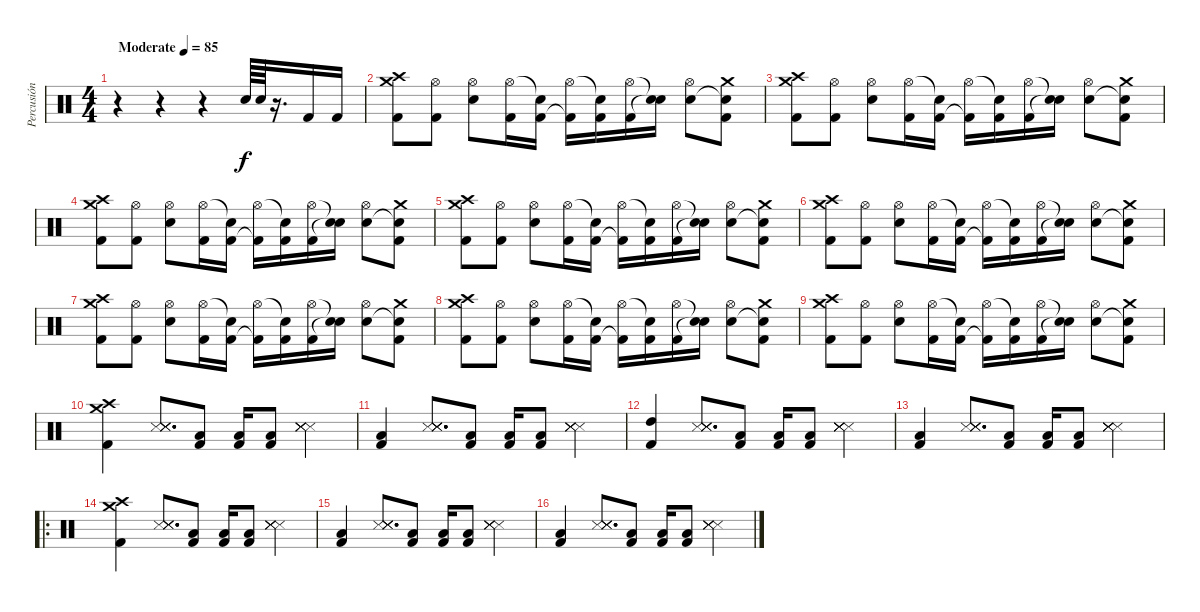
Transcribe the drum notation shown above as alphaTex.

\track ("Percusión" "Percusión") {instrument percussion}
\staff {score}
\articulation defaults
\ts (4 4)
\tempo (85 "Moderate")
\clef neutral
\ks c
r.4{dy f} r.4 r.4 "Electric Snare (hit)".64 "Electric Snare (hit)".64 r.16{d} "Kick (hit) 2".16 "Kick (hit) 2".16 |
("Crash high (hit)" "Crash medium (hit)" "Kick (hit) 2").8 ("Hi-Hat (open)" "Kick (hit) 2").8 ("Hi-Hat (open)" "Electric Snare (hit)").8 ("Hi-Hat (open)" "Kick (hit) 2").16 ("Snare (hit)"{t} "Kick (hit) 2").16 ("Hi-Hat (open)" "Kick (hit) 2"{t}).16 ("Snare (hit)"{t} "Kick (hit) 2").16 ("Hi-Hat (open)" "Kick (hit) 2").16 ("Snare (hit)"{t} "Snare (hit)"{t}).16 ("Hi-Hat (open)" "Electric Snare (hit)").8 ("Crash medium (hit)" "Snare (hit)"{t} "Kick (hit) 2").8 |
("Crash high (hit)" "Crash medium (hit)" "Kick (hit) 2").8 ("Hi-Hat (open)" "Kick (hit) 2").8 ("Hi-Hat (open)" "Electric Snare (hit)").8 ("Hi-Hat (open)" "Kick (hit) 2").16 ("Snare (hit)"{t} "Kick (hit) 2").16 ("Hi-Hat (open)" "Kick (hit) 2"{t}).16 ("Snare (hit)"{t} "Kick (hit) 2").16 ("Hi-Hat (open)" "Kick (hit) 2").16 ("Snare (hit)"{t} "Snare (hit)"{t}).16 ("Hi-Hat (open)" "Electric Snare (hit)").8 ("Crash medium (hit)" "Snare (hit)"{t} "Kick (hit) 2").8 |
("Crash high (hit)" "Crash medium (hit)" "Kick (hit) 2").8 ("Hi-Hat (open)" "Kick (hit) 2").8 ("Hi-Hat (open)" "Electric Snare (hit)").8 ("Hi-Hat (open)" "Kick (hit) 2").16 ("Snare (hit)"{t} "Kick (hit) 2").16 ("Hi-Hat (open)" "Kick (hit) 2"{t}).16 ("Snare (hit)"{t} "Kick (hit) 2").16 ("Hi-Hat (open)" "Kick (hit) 2").16 ("Snare (hit)"{t} "Snare (hit)"{t}).16 ("Hi-Hat (open)" "Electric Snare (hit)").8 ("Crash medium (hit)" "Snare (hit)"{t} "Kick (hit) 2").8 |
("Crash high (hit)" "Crash medium (hit)" "Kick (hit) 2").8 ("Hi-Hat (open)" "Kick (hit) 2").8 ("Hi-Hat (open)" "Electric Snare (hit)").8 ("Hi-Hat (open)" "Kick (hit) 2").16 ("Snare (hit)"{t} "Kick (hit) 2").16 ("Hi-Hat (open)" "Kick (hit) 2"{t}).16 ("Snare (hit)"{t} "Kick (hit) 2").16 ("Hi-Hat (open)" "Kick (hit) 2").16 ("Snare (hit)"{t} "Snare (hit)"{t}).16 ("Hi-Hat (open)" "Electric Snare (hit)").8 ("Crash medium (hit)" "Snare (hit)"{t} "Kick (hit) 2").8 |
("Crash high (hit)" "Crash medium (hit)" "Kick (hit) 2").8 ("Hi-Hat (open)" "Kick (hit) 2").8 ("Hi-Hat (open)" "Electric Snare (hit)").8 ("Hi-Hat (open)" "Kick (hit) 2").16 ("Snare (hit)"{t} "Kick (hit) 2").16 ("Hi-Hat (open)" "Kick (hit) 2"{t}).16 ("Snare (hit)"{t} "Kick (hit) 2").16 ("Hi-Hat (open)" "Kick (hit) 2").16 ("Snare (hit)"{t} "Snare (hit)"{t}).16 ("Hi-Hat (open)" "Electric Snare (hit)").8 ("Crash medium (hit)" "Snare (hit)"{t} "Kick (hit) 2").8 |
("Crash high (hit)" "Crash medium (hit)" "Kick (hit) 2").8 ("Hi-Hat (open)" "Kick (hit) 2").8 ("Hi-Hat (open)" "Electric Snare (hit)").8 ("Hi-Hat (open)" "Kick (hit) 2").16 ("Snare (hit)"{t} "Kick (hit) 2").16 ("Hi-Hat (open)" "Kick (hit) 2"{t}).16 ("Snare (hit)"{t} "Kick (hit) 2").16 ("Hi-Hat (open)" "Kick (hit) 2").16 ("Snare (hit)"{t} "Snare (hit)"{t}).16 ("Hi-Hat (open)" "Electric Snare (hit)").8 ("Crash medium (hit)" "Snare (hit)"{t} "Kick (hit) 2").8 |
("Crash high (hit)" "Crash medium (hit)" "Kick (hit) 2").8 ("Hi-Hat (open)" "Kick (hit) 2").8 ("Hi-Hat (open)" "Electric Snare (hit)").8 ("Hi-Hat (open)" "Kick (hit) 2").16 ("Snare (hit)"{t} "Kick (hit) 2").16 ("Hi-Hat (open)" "Kick (hit) 2"{t}).16 ("Snare (hit)"{t} "Kick (hit) 2").16 ("Hi-Hat (open)" "Kick (hit) 2").16 ("Snare (hit)"{t} "Snare (hit)"{t}).16 ("Hi-Hat (open)" "Electric Snare (hit)").8 ("Crash medium (hit)" "Snare (hit)"{t} "Kick (hit) 2").8 |
("Crash high (hit)" "Crash medium (hit)" "Kick (hit) 2").8 ("Hi-Hat (open)" "Kick (hit) 2").8 ("Hi-Hat (open)" "Electric Snare (hit)").8 ("Hi-Hat (open)" "Kick (hit) 2").16 ("Snare (hit)"{t} "Kick (hit) 2").16 ("Hi-Hat (open)" "Kick (hit) 2"{t}).16 ("Snare (hit)"{t} "Kick (hit) 2").16 ("Hi-Hat (open)" "Kick (hit) 2").16 ("Snare (hit)"{t} "Snare (hit)"{t}).16 ("Hi-Hat (open)" "Electric Snare (hit)").8 ("Crash medium (hit)" "Snare (hit)"{t} "Kick (hit) 2").8 |
("Crash medium (hit)" "Crash high (hit)" "Kick (hit) 2").4 ("Snare (side stick) 3" "Snare (side stick) 3" "Snare (side stick) 3" "Snare (side stick) 3" "Snare (side stick) 3").8{d} ("Low Tom (hit)" "Kick (hit) 2").8 ("Low Tom (hit)" "Kick (hit) 2").16 ("Low Tom (hit)" "Kick (hit) 2").8 ("Snare (side stick) 3" "Snare (side stick) 3" "Snare (side stick) 3" "Snare (side stick) 3" "Snare (side stick) 3").4 |
("Low Tom (hit)" "Kick (hit) 2").4 ("Snare (side stick) 3" "Snare (side stick) 3" "Snare (side stick) 3" "Snare (side stick) 3" "Snare (side stick) 3").8{d} ("Low Tom (hit)" "Kick (hit) 2").8 ("Low Tom (hit)" "Kick (hit) 2").16 ("Low Tom (hit)" "Kick (hit) 2").8 ("Snare (side stick) 3" "Snare (side stick) 3" "Snare (side stick) 3" "Snare (side stick) 3" "Snare (side stick) 3").4 |
("High Tom (hit)" "Kick (hit) 2").4 ("Snare (side stick) 3" "Snare (side stick) 3" "Snare (side stick) 3" "Snare (side stick) 3" "Snare (side stick) 3").8{d} ("Low Tom (hit)" "Kick (hit) 2").8 ("Low Tom (hit)" "Kick (hit) 2").16 ("Low Tom (hit)" "Kick (hit) 2").8 ("Snare (side stick) 3" "Snare (side stick) 3" "Snare (side stick) 3" "Snare (side stick) 3" "Snare (side stick) 3").4 |
("Low Tom (hit)" "Kick (hit) 2").4 ("Snare (side stick) 3" "Snare (side stick) 3" "Snare (side stick) 3" "Snare (side stick) 3" "Snare (side stick) 3").8{d} ("Low Tom (hit)" "Kick (hit) 2").8 ("Low Tom (hit)" "Kick (hit) 2").16 ("Low Tom (hit)" "Kick (hit) 2").8 ("Snare (side stick) 3" "Snare (side stick) 3" "Snare (side stick) 3" "Snare (side stick) 3" "Snare (side stick) 3").4 |
\ro
("Crash medium (hit)" "Crash high (hit)" "Kick (hit) 2").4 ("Snare (side stick) 3" "Snare (side stick) 3" "Snare (side stick) 3" "Snare (side stick) 3" "Snare (side stick) 3").8{d} ("Low Tom (hit)" "Kick (hit) 2").8 ("Low Tom (hit)" "Kick (hit) 2").16 ("Low Tom (hit)" "Kick (hit) 2").8 ("Snare (side stick) 3" "Snare (side stick) 3" "Snare (side stick) 3" "Snare (side stick) 3" "Snare (side stick) 3").4 |
("Low Tom (hit)" "Kick (hit) 2").4 ("Snare (side stick) 3" "Snare (side stick) 3" "Snare (side stick) 3" "Snare (side stick) 3" "Snare (side stick) 3").8{d} ("Low Tom (hit)" "Kick (hit) 2").8 ("Low Tom (hit)" "Kick (hit) 2").16 ("Low Tom (hit)" "Kick (hit) 2").8 ("Snare (side stick) 3" "Snare (side stick) 3" "Snare (side stick) 3" "Snare (side stick) 3" "Snare (side stick) 3").4 |
("Low Tom (hit)" "Kick (hit) 2").4 ("Snare (side stick) 3" "Snare (side stick) 3" "Snare (side stick) 3" "Snare (side stick) 3" "Snare (side stick) 3").8{d} ("Low Tom (hit)" "Kick (hit) 2").8 ("Low Tom (hit)" "Kick (hit) 2").16 ("Low Tom (hit)" "Kick (hit) 2").8 ("Snare (side stick) 3" "Snare (side stick) 3" "Snare (side stick) 3" "Snare (side stick) 3" "Snare (side stick) 3").4
